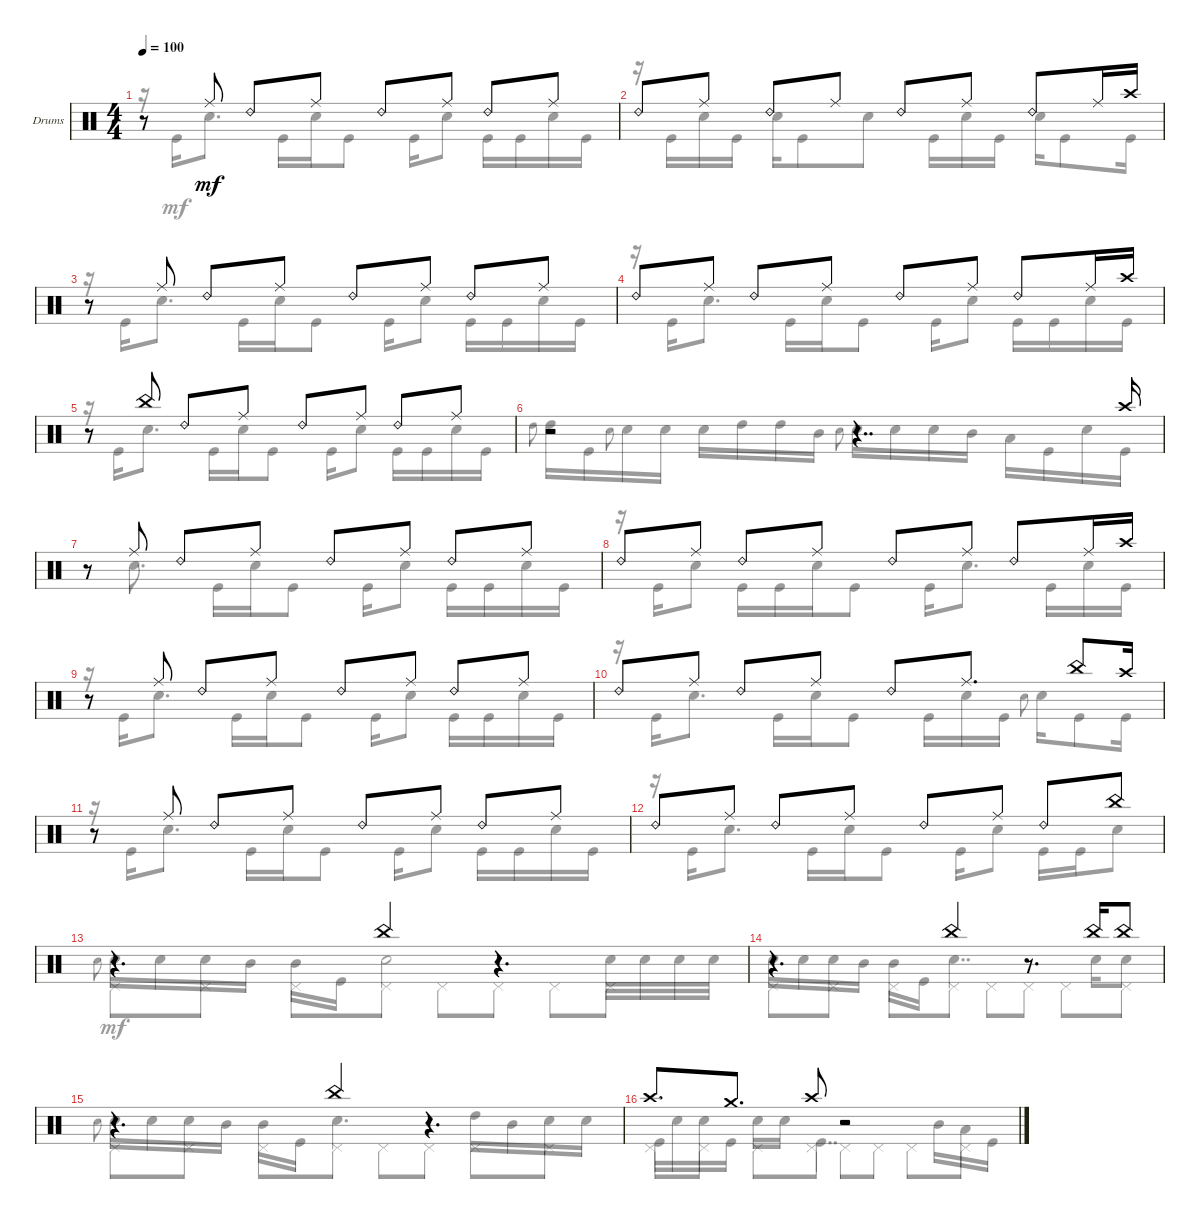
\defaultSystemsLayout 4
\bracketExtendMode groupsimilarinstruments
\firstSystemTrackNameOrientation horizontal
\otherSystemsTrackNameOrientation horizontal
\track ("Drumkit" "Drums") {instrument percussion}
\staff {score}
\articulation defaults
\voice
\ts (4 4)
\tempo 100
\clef neutral
\ks c
r.8{dy mf} "Ride (middle)".8 "Ride (bell) 2".8 "Ride (middle)".8 "Ride (bell) 2".8 "Ride (middle)".8 "Ride (bell) 2".8 "Ride (middle)".8 |
"Ride (bell) 2".8 "Ride (middle)".8 "Ride (bell) 2".8 "Ride (middle)".8 "Ride (bell) 2".8 "Ride (middle)".8 "Ride (bell) 2".8 "Ride (middle)".16 "Crash high (hit)".16 |
r.8 "Ride (middle)".8 "Ride (bell) 2".8 "Ride (middle)".8 "Ride (bell) 2".8 "Ride (middle)".8 "Ride (bell) 2".8 "Ride (middle)".8 |
"Ride (bell) 2".8 "Ride (middle)".8 "Ride (bell) 2".8 "Ride (middle)".8 "Ride (bell) 2".8 "Ride (middle)".8 "Ride (bell) 2".8 "Ride (middle)".16 "Crash high (hit)".16 |
r.8 "China (hit)".8 "Ride (bell) 2".8 "Ride (middle)".8 "Ride (bell) 2".8 "Ride (middle)".8 "Ride (bell) 2".8 "Ride (middle)".8 |
r.2 r.4{dd} "Crash high (hit)".16 |
r.8 "Ride (middle)".8 "Ride (bell) 2".8 "Ride (middle)".8 "Ride (bell) 2".8 "Ride (middle)".8 "Ride (bell) 2".8 "Ride (middle)".8 |
"Ride (bell) 2".8 "Ride (middle)".8 "Ride (bell) 2".8 "Ride (middle)".8 "Ride (bell) 2".8 "Ride (middle)".8 "Ride (bell) 2".8 "Ride (middle)".16 "Crash high (hit)".16 |
r.8 "Ride (middle)".8 "Ride (bell) 2".8 "Ride (middle)".8 "Ride (bell) 2".8 "Ride (middle)".8 "Ride (bell) 2".8 "Ride (middle)".8 |
"Ride (bell) 2".8 "Ride (middle)".8 "Ride (bell) 2".8 "Ride (middle)".8 "Ride (bell) 2".8 "Ride (middle)".8{d} "China (hit)".8 "Crash high (hit)".16 |
r.8 "Ride (middle)".8 "Ride (bell) 2".8 "Ride (middle)".8 "Ride (bell) 2".8 "Ride (middle)".8 "Ride (bell) 2".8 "Ride (middle)".8 |
"Ride (bell) 2".8 "Ride (middle)".8 "Ride (bell) 2".8 "Ride (middle)".8 "Ride (bell) 2".8 "Ride (middle)".8 "Ride (bell) 2".8 "China (hit)".8 |
r.4{d} "China (hit)".4 r.4{d} |
r.4{d} "China (hit)".4 r.8{d} "China (hit)".16 "China (hit)".8 |
r.4{d} "China (hit)".4 r.4{d} |
"Crash high (hit)".8{d} "Crash medium (hit)".8{d} "Crash high (hit)".8 r.2
\voice
\clef neutral
\ottava regular
\simile none
\ks c
r.16{dy mf} "Kick (hit)".16 "Snare (hit) 2".8{d} "Kick (hit)".16 "Snare (hit) 2".16 "Kick (hit)".8 "Kick (hit)".16 "Snare (hit) 2".8 "Kick (hit)".16 "Kick (hit)".16 "Snare (hit) 2".16 "Kick (hit)".16 |
r.16 "Kick (hit)".16 "Snare (hit) 2".16 "Kick (hit)".16 "Snare (hit) 2".16 "Kick (hit)".8 "Snare (hit) 2".8 "Kick (hit)".16 "Snare (hit) 2".16 "Kick (hit)".16 "Snare (hit) 2".16 "Kick (hit)".8 "Kick (hit)".16 |
r.16 "Kick (hit)".16 "Snare (hit) 2".8{d} "Kick (hit)".16 "Snare (hit) 2".16 "Kick (hit)".8 "Kick (hit)".16 "Snare (hit) 2".8 "Kick (hit)".16 "Kick (hit)".16 "Snare (hit) 2".16 "Kick (hit)".16 |
r.16 "Kick (hit)".16 "Snare (hit) 2".8{d} "Kick (hit)".16 "Snare (hit) 2".16 "Kick (hit)".8 "Kick (hit)".16 "Snare (hit) 2".8 "Kick (hit)".16 "Kick (hit)".16 "Snare (hit) 2".16 "Kick (hit)".16 |
r.16 "Kick (hit)".16 "Snare (hit) 2".8{d} "Kick (hit)".16 "Snare (hit) 2".16 "Kick (hit)".8 "Kick (hit)".16 "Snare (hit) 2".8 "Kick (hit)".16 "Kick (hit)".16 "Snare (hit) 2".16 "Kick (hit)".16 |
"High Tom (hit)".8{gr onbeat} "High Tom (hit)".16 "Kick (hit)".16 "Snare (hit) 2".8{gr onbeat} "Snare (hit) 2".16 "Snare (hit) 2".16 "Snare (hit) 2".16 "High Tom (hit)".16 "High Tom (hit)".16 "Mid Tom (hit)".16 "Snare (hit) 2".8{gr onbeat} "Snare (hit) 2".16 "Snare (hit) 2".16 "Snare (hit) 2".16 "Mid Tom (hit)".16 "Low Tom (hit)".16 "Kick (hit)".16 "Snare (hit) 2".16 "Kick (hit)".16 |
r.8 "Snare (hit) 2".8{d} "Kick (hit)".16 "Snare (hit) 2".16 "Kick (hit)".8 "Kick (hit)".16 "Snare (hit) 2".8 "Kick (hit)".16 "Kick (hit)".16 "Snare (hit) 2".16 "Kick (hit)".16 |
r.16 "Kick (hit)".16 "Snare (hit) 2".8 "Kick (hit)".16 "Kick (hit)".16 "Snare (hit) 2".16 "Kick (hit)".8 "Kick (hit)".16 "Snare (hit) 2".8{d} "Kick (hit)".16 "Snare (hit) 2".16 "Kick (hit)".16 |
r.16 "Kick (hit)".16 "Snare (hit) 2".8{d} "Kick (hit)".16 "Snare (hit) 2".16 "Kick (hit)".8 "Kick (hit)".16 "Snare (hit) 2".8 "Kick (hit)".16 "Kick (hit)".16 "Snare (hit) 2".16 "Kick (hit)".16 |
r.16 "Kick (hit)".16 "Snare (hit) 2".8{d} "Kick (hit)".16 "Snare (hit) 2".16 "Kick (hit)".8 "Kick (hit)".16 "Snare (hit) 2".16 "Kick (hit)".16 "Snare (hit) 2".8{gr onbeat} "Snare (hit) 2".16 "Kick (hit)".8 "Kick (hit)".16 |
r.16 "Kick (hit)".16 "Snare (hit) 2".8{d} "Kick (hit)".16 "Snare (hit) 2".16 "Kick (hit)".8 "Kick (hit)".16 "Snare (hit) 2".8 "Kick (hit)".16 "Kick (hit)".16 "Snare (hit) 2".16 "Kick (hit)".16 |
r.16 "Kick (hit)".16 "Snare (hit) 2".8{d} "Kick (hit)".16 "Snare (hit) 2".16 "Kick (hit)".8 "Kick (hit)".16 "Snare (hit) 2".8 "Kick (hit)".16 "Kick (hit)".16 "Snare (hit) 2".8 |
"Snare (hit) 2".8{gr onbeat} "Snare (hit) 2".16 "Snare (hit) 2".16 "Snare (hit) 2".16 "Mid Tom (hit)".16 "Mid Tom (hit)".16 "Kick (hit)".16 "Snare (hit) 2".2 "Snare (hit) 2".32 "Snare (hit) 2".32 "Snare (hit) 2".32 "Snare (hit) 2".32 |
"Snare (hit) 2".16 "Snare (hit) 2".16 "Snare (hit) 2".16 "Mid Tom (hit)".16 "Mid Tom (hit)".16 "Kick (hit)".16 "Snare (hit) 2".4{dd} "Snare (hit) 2".16 "Snare (hit) 2".8 |
"Snare (hit) 2".8{gr onbeat} "Snare (hit) 2".16 "Snare (hit) 2".16 "Snare (hit) 2".16 "Mid Tom (hit)".16 "Mid Tom (hit)".16 "Kick (hit)".16 "Snare (hit) 2".4{d} "High Tom (hit)".16 "Mid Tom (hit)".16 "Snare (hit) 2".16 "Snare (hit) 2".16 |
"Kick (hit)".16 "Snare (hit) 2".16 "Snare (hit) 2".16 "Kick (hit)".16 "Snare (hit) 2".16 "Snare (hit) 2".16 "Kick (hit)".4{dd} "Mid Tom (hit)".16 "Low Tom (hit)".16 "Kick (hit)".16
\voice
\clef neutral
\ottava regular
\simile none
\ks c
|
|
|
|
|
|
|
|
|
|
|
|
"Pedal Hi-Hat (hit)".8 "Pedal Hi-Hat (hit)".8 "Pedal Hi-Hat (hit)".8 "Pedal Hi-Hat (hit)".8 "Pedal Hi-Hat (hit)".8 "Pedal Hi-Hat (hit)".8 "Pedal Hi-Hat (hit)".8 "Pedal Hi-Hat (hit)".8 |
"Pedal Hi-Hat (hit)".8 "Pedal Hi-Hat (hit)".8 "Pedal Hi-Hat (hit)".8 "Pedal Hi-Hat (hit)".8 "Pedal Hi-Hat (hit)".8 "Pedal Hi-Hat (hit)".8 "Pedal Hi-Hat (hit)".8 "Pedal Hi-Hat (hit)".8 |
"Pedal Hi-Hat (hit)".8 "Pedal Hi-Hat (hit)".8 "Pedal Hi-Hat (hit)".8 "Pedal Hi-Hat (hit)".8 "Pedal Hi-Hat (hit)".8 "Pedal Hi-Hat (hit)".8 "Pedal Hi-Hat (hit)".8 "Pedal Hi-Hat (hit)".8 |
"Pedal Hi-Hat (hit)".8 "Pedal Hi-Hat (hit)".8 "Pedal Hi-Hat (hit)".8 "Pedal Hi-Hat (hit)".8 "Pedal Hi-Hat (hit)".8 "Pedal Hi-Hat (hit)".8 "Pedal Hi-Hat (hit)".8 "Pedal Hi-Hat (hit)".8
